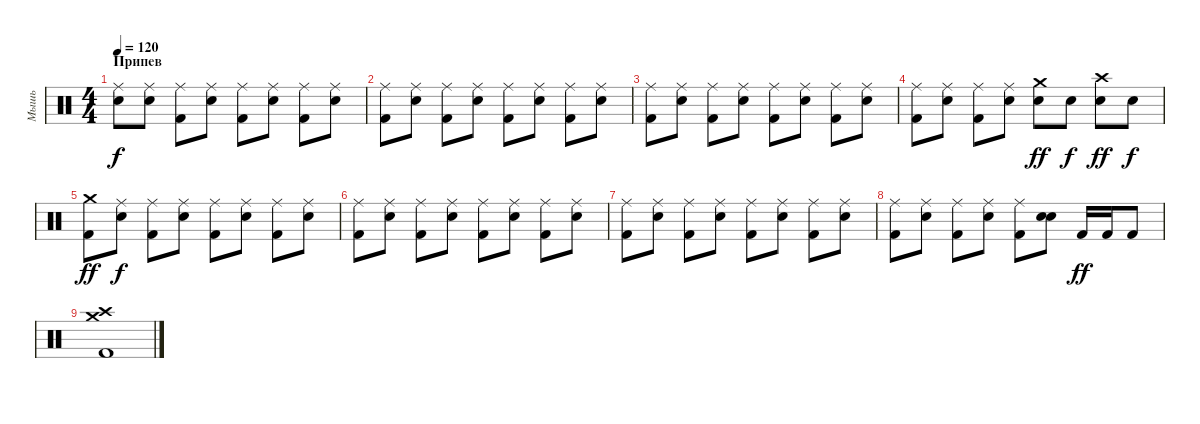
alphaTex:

\track ("Мышь" "Мышь") {instrument percussion}
\staff {score}
\articulation defaults
\ts (4 4)
\section ("" "Припев")
\tempo 120
\clef neutral
\ks c
("Snare (hit) 2" "Ride (middle)").8{dy f} ("Snare (hit) 2" "Ride (middle)").8 ("Kick (hit) 2" "Ride (middle)").8 ("Snare (hit) 2" "Ride (middle)").8 ("Kick (hit) 2" "Ride (middle)").8 ("Snare (hit) 2" "Ride (middle)").8 ("Kick (hit) 2" "Ride (middle)").8 ("Snare (hit) 2" "Ride (middle)").8 |
("Kick (hit) 2" "Ride (middle)").8 ("Snare (hit) 2" "Ride (middle)").8 ("Kick (hit) 2" "Ride (middle)").8 ("Snare (hit) 2" "Ride (middle)").8 ("Kick (hit) 2" "Ride (middle)").8 ("Snare (hit) 2" "Ride (middle)").8 ("Kick (hit) 2" "Ride (middle)").8 ("Snare (hit) 2" "Ride (middle)").8 |
("Kick (hit) 2" "Ride (middle)").8 ("Snare (hit) 2" "Ride (middle)").8 ("Kick (hit) 2" "Ride (middle)").8 ("Snare (hit) 2" "Ride (middle)").8 ("Kick (hit) 2" "Ride (middle)").8 ("Snare (hit) 2" "Ride (middle)").8 ("Kick (hit) 2" "Ride (middle)").8 ("Snare (hit) 2" "Ride (middle)").8 |
("Kick (hit) 2" "Ride (middle)").8 ("Snare (hit) 2" "Ride (middle)").8 ("Kick (hit) 2" "Ride (middle)").8 ("Snare (hit) 2" "Ride (middle)").8 ("Snare (hit) 2" "Crash medium (hit)").8{dy ff} "Snare (hit) 2".8{dy f} ("Snare (hit) 2" "Crash high (hit)").8{dy ff} "Snare (hit) 2".8{dy f} |
("Kick (hit) 2" "Crash medium (hit)").8{dy ff} ("Snare (hit) 2" "Ride (middle)").8{dy f} ("Kick (hit) 2" "Ride (middle)").8 ("Snare (hit) 2" "Ride (middle)").8 ("Kick (hit) 2" "Ride (middle)").8 ("Snare (hit) 2" "Ride (middle)").8 ("Kick (hit) 2" "Ride (middle)").8 ("Snare (hit) 2" "Ride (middle)").8 |
("Kick (hit) 2" "Ride (middle)").8 ("Snare (hit) 2" "Ride (middle)").8 ("Kick (hit) 2" "Ride (middle)").8 ("Snare (hit) 2" "Ride (middle)").8 ("Kick (hit) 2" "Ride (middle)").8 ("Snare (hit) 2" "Ride (middle)").8 ("Kick (hit) 2" "Ride (middle)").8 ("Snare (hit) 2" "Ride (middle)").8 |
("Kick (hit) 2" "Ride (middle)").8 ("Snare (hit) 2" "Ride (middle)").8 ("Kick (hit) 2" "Ride (middle)").8 ("Snare (hit) 2" "Ride (middle)").8 ("Kick (hit) 2" "Ride (middle)").8 ("Snare (hit) 2" "Ride (middle)").8 ("Kick (hit) 2" "Ride (middle)").8 ("Snare (hit) 2" "Ride (middle)").8 |
("Kick (hit) 2" "Ride (middle)").8 ("Snare (hit) 2" "Ride (middle)").8 ("Kick (hit) 2" "Ride (middle)").8 ("Snare (hit) 2" "Ride (middle)").8 ("Kick (hit) 2" "Ride (middle)").8 ("Snare (hit) 2" "Snare (hit) 2").8{bd 120} "Kick (hit) 2".16{dy ff} "Kick (hit) 2".16 "Kick (hit) 2".8 |
("Crash medium (hit)" "Kick (hit) 2" "Crash high (hit)").1
